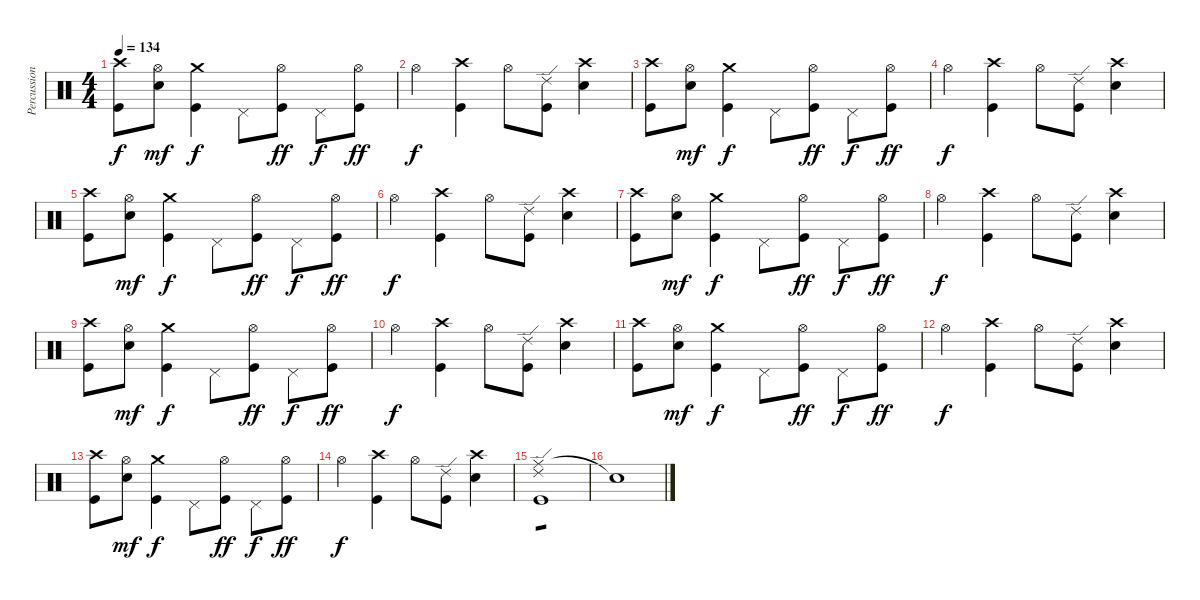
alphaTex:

\track ("Percussion" "Percussion") {instrument percussion}
\staff {score}
\articulation defaults
\ts (4 4)
\tempo 134
\clef neutral
\ks c
("Crash high (hit)" "Kick (hit)").8{dy f} ("Hi-Hat (open)" "Electric Snare (hit)").8{dy mf} ("Crash medium (hit)" "Kick (hit)").4{dy f} "Pedal Hi-Hat (hit)".8 ("Hi-Hat (open)" "Kick (hit)").8{dy ff} "Pedal Hi-Hat (hit)".8{dy f} ("Hi-Hat (open)" "Kick (hit)").8{dy ff} |
"Hi-Hat (open)".4{dy f} ("Crash high (hit)" "Kick (hit)").4 "Hi-Hat (open)".8 ("Ride (edge) 2" "Kick (hit)").8 ("Crash high (hit)" "Electric Snare (hit)").4 |
("Crash high (hit)" "Kick (hit)").8 ("Hi-Hat (open)" "Electric Snare (hit)").8{dy mf} ("Crash medium (hit)" "Kick (hit)").4{dy f} "Pedal Hi-Hat (hit)".8 ("Hi-Hat (open)" "Kick (hit)").8{dy ff} "Pedal Hi-Hat (hit)".8{dy f} ("Hi-Hat (open)" "Kick (hit)").8{dy ff} |
"Hi-Hat (open)".4{dy f} ("Crash high (hit)" "Kick (hit)").4 "Hi-Hat (open)".8 ("Ride (edge) 2" "Kick (hit)").8 ("Crash high (hit)" "Electric Snare (hit)").4 |
("Crash high (hit)" "Kick (hit)").8 ("Hi-Hat (open)" "Electric Snare (hit)").8{dy mf} ("Crash medium (hit)" "Kick (hit)").4{dy f} "Pedal Hi-Hat (hit)".8 ("Hi-Hat (open)" "Kick (hit)").8{dy ff} "Pedal Hi-Hat (hit)".8{dy f} ("Hi-Hat (open)" "Kick (hit)").8{dy ff} |
"Hi-Hat (open)".4{dy f} ("Crash high (hit)" "Kick (hit)").4 "Hi-Hat (open)".8 ("Ride (edge) 2" "Kick (hit)").8 ("Crash high (hit)" "Electric Snare (hit)").4 |
("Crash high (hit)" "Kick (hit)").8 ("Hi-Hat (open)" "Electric Snare (hit)").8{dy mf} ("Crash medium (hit)" "Kick (hit)").4{dy f} "Pedal Hi-Hat (hit)".8 ("Hi-Hat (open)" "Kick (hit)").8{dy ff} "Pedal Hi-Hat (hit)".8{dy f} ("Hi-Hat (open)" "Kick (hit)").8{dy ff} |
"Hi-Hat (open)".4{dy f} ("Crash high (hit)" "Kick (hit)").4 "Hi-Hat (open)".8 ("Ride (edge) 2" "Kick (hit)").8 ("Crash high (hit)" "Electric Snare (hit)").4 |
("Crash high (hit)" "Kick (hit)").8 ("Hi-Hat (open)" "Electric Snare (hit)").8{dy mf} ("Crash medium (hit)" "Kick (hit)").4{dy f} "Pedal Hi-Hat (hit)".8 ("Hi-Hat (open)" "Kick (hit)").8{dy ff} "Pedal Hi-Hat (hit)".8{dy f} ("Hi-Hat (open)" "Kick (hit)").8{dy ff} |
"Hi-Hat (open)".4{dy f} ("Crash high (hit)" "Kick (hit)").4 "Hi-Hat (open)".8 ("Ride (edge) 2" "Kick (hit)").8 ("Crash high (hit)" "Electric Snare (hit)").4 |
("Crash high (hit)" "Kick (hit)").8 ("Hi-Hat (open)" "Electric Snare (hit)").8{dy mf} ("Crash medium (hit)" "Kick (hit)").4{dy f} "Pedal Hi-Hat (hit)".8 ("Hi-Hat (open)" "Kick (hit)").8{dy ff} "Pedal Hi-Hat (hit)".8{dy f} ("Hi-Hat (open)" "Kick (hit)").8{dy ff} |
"Hi-Hat (open)".4{dy f} ("Crash high (hit)" "Kick (hit)").4 "Hi-Hat (open)".8 ("Ride (edge) 2" "Kick (hit)").8 ("Crash high (hit)" "Electric Snare (hit)").4 |
("Crash high (hit)" "Kick (hit)").8 ("Hi-Hat (open)" "Electric Snare (hit)").8{dy mf} ("Crash medium (hit)" "Kick (hit)").4{dy f} "Pedal Hi-Hat (hit)".8 ("Hi-Hat (open)" "Kick (hit)").8{dy ff} "Pedal Hi-Hat (hit)".8{dy f} ("Hi-Hat (open)" "Kick (hit)").8{dy ff} |
"Hi-Hat (open)".4{dy f} ("Crash high (hit)" "Kick (hit)").4 "Hi-Hat (open)".8 ("Ride (edge) 2" "Kick (hit)").8 ("Crash high (hit)" "Electric Snare (hit)").4 |
("Ride (middle)" "Ride (edge) 2" "Kick (hit)").1{tp 1} |
"Snare (hit)"{t}.1
